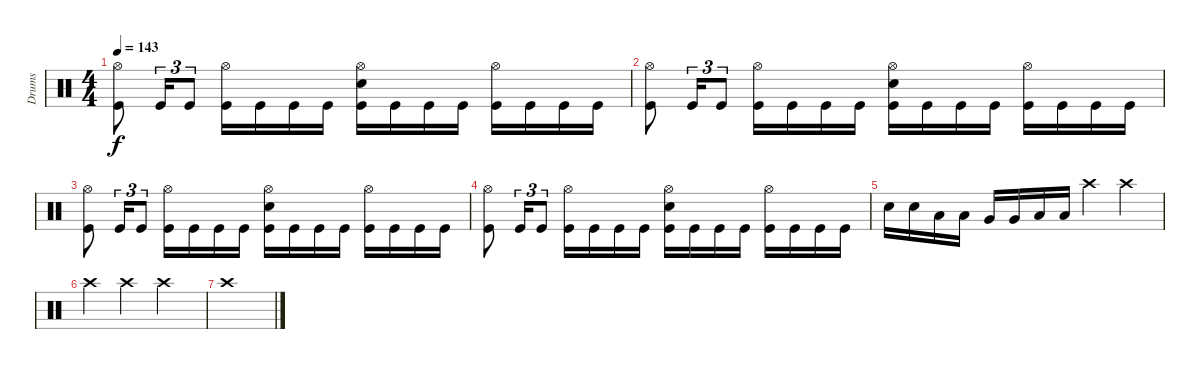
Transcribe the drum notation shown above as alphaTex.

\track ("Drums" "Drums") {instrument percussion}
\staff {score}
\articulation defaults
\ts (4 4)
\tempo 143
\clef neutral
\ks c
("Hi-Hat (open)" "Kick (hit)").8{dy f} "Kick (hit)".16{tu (3 2)} "Kick (hit)".8{tu (3 2)} ("Hi-Hat (open)" "Kick (hit)").16 "Kick (hit)".16 "Kick (hit)".16 "Kick (hit)".16 ("Hi-Hat (open)" "Snare (hit) 2" "Kick (hit)").16 "Kick (hit)".16 "Kick (hit)".16 "Kick (hit)".16 ("Hi-Hat (open)" "Kick (hit)").16 "Kick (hit)".16 "Kick (hit)".16 "Kick (hit)".16 |
("Hi-Hat (open)" "Kick (hit)").8 "Kick (hit)".16{tu (3 2)} "Kick (hit)".8{tu (3 2)} ("Hi-Hat (open)" "Kick (hit)").16 "Kick (hit)".16 "Kick (hit)".16 "Kick (hit)".16 ("Hi-Hat (open)" "Snare (hit) 2" "Kick (hit)").16 "Kick (hit)".16 "Kick (hit)".16 "Kick (hit)".16 ("Hi-Hat (open)" "Kick (hit)").16 "Kick (hit)".16 "Kick (hit)".16 "Kick (hit)".16 |
("Hi-Hat (open)" "Kick (hit)").8 "Kick (hit)".16{tu (3 2)} "Kick (hit)".8{tu (3 2)} ("Hi-Hat (open)" "Kick (hit)").16 "Kick (hit)".16 "Kick (hit)".16 "Kick (hit)".16 ("Hi-Hat (open)" "Snare (hit) 2" "Kick (hit)").16 "Kick (hit)".16 "Kick (hit)".16 "Kick (hit)".16 ("Hi-Hat (open)" "Kick (hit)").16 "Kick (hit)".16 "Kick (hit)".16 "Kick (hit)".16 |
("Hi-Hat (open)" "Kick (hit)").8 "Kick (hit)".16{tu (3 2)} "Kick (hit)".8{tu (3 2)} ("Hi-Hat (open)" "Kick (hit)").16 "Kick (hit)".16 "Kick (hit)".16 "Kick (hit)".16 ("Hi-Hat (open)" "Snare (hit) 2" "Kick (hit)").16 "Kick (hit)".16 "Kick (hit)".16 "Kick (hit)".16 ("Hi-Hat (open)" "Kick (hit)").16 "Kick (hit)".16 "Kick (hit)".16 "Kick (hit)".16 |
"Snare (hit) 2".16 "Snare (hit) 2".16 "Low Tom (hit)".16 "Low Tom (hit)".16 "Very Low Tom (hit)".16 "Very Low Tom (hit)".16 "Low Floor Tom (hit)".16 "Low Floor Tom (hit)".16 "Crash high (hit)".4 "Crash high (hit)".4 |
"Crash high (hit)".4 "Crash high (hit)".4 "Crash high (hit)".2 |
"Crash high (hit)".1
